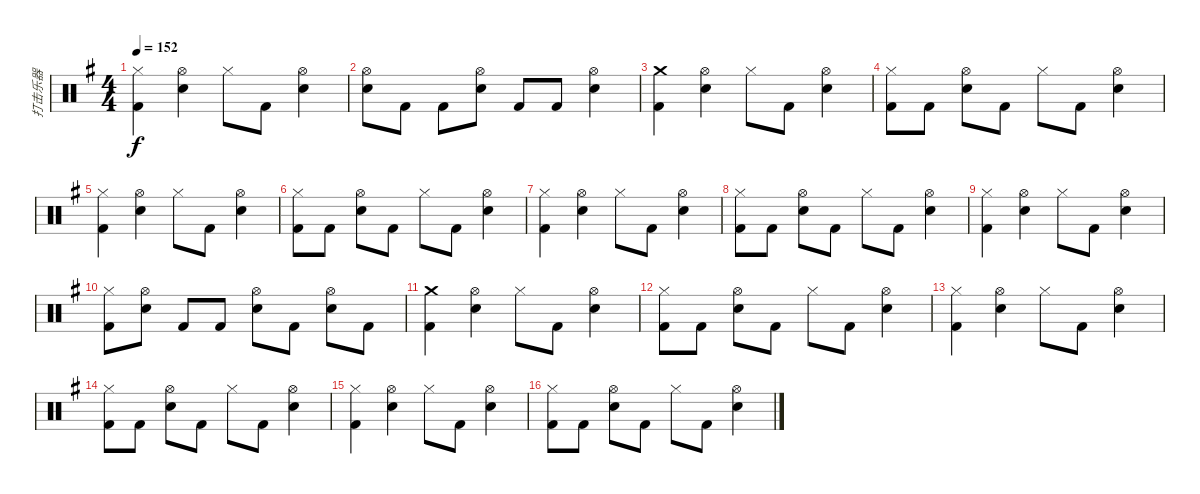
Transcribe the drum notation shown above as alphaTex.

\track ("打击乐器" "打击乐器") {instrument percussion}
\staff {score}
\articulation defaults
\ts (4 4)
\tempo 152
\clef neutral
\ks g
("Hi-Hat (closed)" "Kick (hit) 2").4{dy f} ("Hi-Hat (open)" "Metronome (bell)").4 "Hi-Hat (closed)".8 "Kick (hit) 2".8 ("Hi-Hat (open)" "Metronome (bell)").4 |
("Hi-Hat (open)" "Metronome (bell)").8 "Kick (hit) 2".8 "Kick (hit) 2".8 ("Hi-Hat (open)" "Metronome (bell)").8 "Kick (hit) 2".8 "Kick (hit) 2".8 ("Hi-Hat (open)" "Metronome (bell)").4 |
("Crash medium (hit)" "Kick (hit) 2").4 ("Hi-Hat (open)" "Metronome (bell)").4 "Hi-Hat (closed)".8 "Kick (hit) 2".8 ("Hi-Hat (open)" "Metronome (bell)").4 |
("Hi-Hat (closed)" "Kick (hit) 2").8 "Kick (hit) 2".8 ("Hi-Hat (open)" "Metronome (bell)").8 "Kick (hit) 2".8 "Hi-Hat (closed)".8 "Kick (hit) 2".8 ("Hi-Hat (open)" "Metronome (bell)").4 |
("Hi-Hat (closed)" "Kick (hit) 2").4 ("Hi-Hat (open)" "Metronome (bell)").4 "Hi-Hat (closed)".8 "Kick (hit) 2".8 ("Hi-Hat (open)" "Metronome (bell)").4 |
("Hi-Hat (closed)" "Kick (hit) 2").8 "Kick (hit) 2".8 ("Hi-Hat (open)" "Metronome (bell)").8 "Kick (hit) 2".8 "Hi-Hat (closed)".8 "Kick (hit) 2".8 ("Hi-Hat (open)" "Metronome (bell)").4 |
("Hi-Hat (closed)" "Kick (hit) 2").4 ("Hi-Hat (open)" "Metronome (bell)").4 "Hi-Hat (closed)".8 "Kick (hit) 2".8 ("Hi-Hat (open)" "Metronome (bell)").4 |
("Hi-Hat (closed)" "Kick (hit) 2").8 "Kick (hit) 2".8 ("Hi-Hat (open)" "Metronome (bell)").8 "Kick (hit) 2".8 "Hi-Hat (closed)".8 "Kick (hit) 2".8 ("Hi-Hat (open)" "Metronome (bell)").4 |
("Hi-Hat (closed)" "Kick (hit) 2").4 ("Hi-Hat (open)" "Metronome (bell)").4 "Hi-Hat (closed)".8 "Kick (hit) 2".8 ("Hi-Hat (open)" "Metronome (bell)").4 |
("Hi-Hat (closed)" "Kick (hit) 2").8 ("Hi-Hat (open)" "Metronome (bell)").8 "Kick (hit) 2".8 "Kick (hit) 2".8 ("Hi-Hat (open)" "Metronome (bell)").8 "Kick (hit) 2".8 ("Hi-Hat (open)" "Metronome (bell)").8 "Kick (hit) 2".8 |
("Crash medium (hit)" "Kick (hit) 2").4 ("Hi-Hat (open)" "Metronome (bell)").4 "Hi-Hat (closed)".8 "Kick (hit) 2".8 ("Hi-Hat (open)" "Metronome (bell)").4 |
("Hi-Hat (closed)" "Kick (hit) 2").8 "Kick (hit) 2".8 ("Hi-Hat (open)" "Metronome (bell)").8 "Kick (hit) 2".8 "Hi-Hat (closed)".8 "Kick (hit) 2".8 ("Hi-Hat (open)" "Metronome (bell)").4 |
("Hi-Hat (closed)" "Kick (hit) 2").4 ("Hi-Hat (open)" "Metronome (bell)").4 "Hi-Hat (closed)".8 "Kick (hit) 2".8 ("Hi-Hat (open)" "Metronome (bell)").4 |
("Hi-Hat (closed)" "Kick (hit) 2").8 "Kick (hit) 2".8 ("Hi-Hat (open)" "Metronome (bell)").8 "Kick (hit) 2".8 "Hi-Hat (closed)".8 "Kick (hit) 2".8 ("Hi-Hat (open)" "Metronome (bell)").4 |
("Hi-Hat (closed)" "Kick (hit) 2").4 ("Hi-Hat (open)" "Metronome (bell)").4 "Hi-Hat (closed)".8 "Kick (hit) 2".8 ("Hi-Hat (open)" "Metronome (bell)").4 |
("Hi-Hat (closed)" "Kick (hit) 2").8 "Kick (hit) 2".8 ("Hi-Hat (open)" "Metronome (bell)").8 "Kick (hit) 2".8 "Hi-Hat (closed)".8 "Kick (hit) 2".8 ("Hi-Hat (open)" "Metronome (bell)").4
